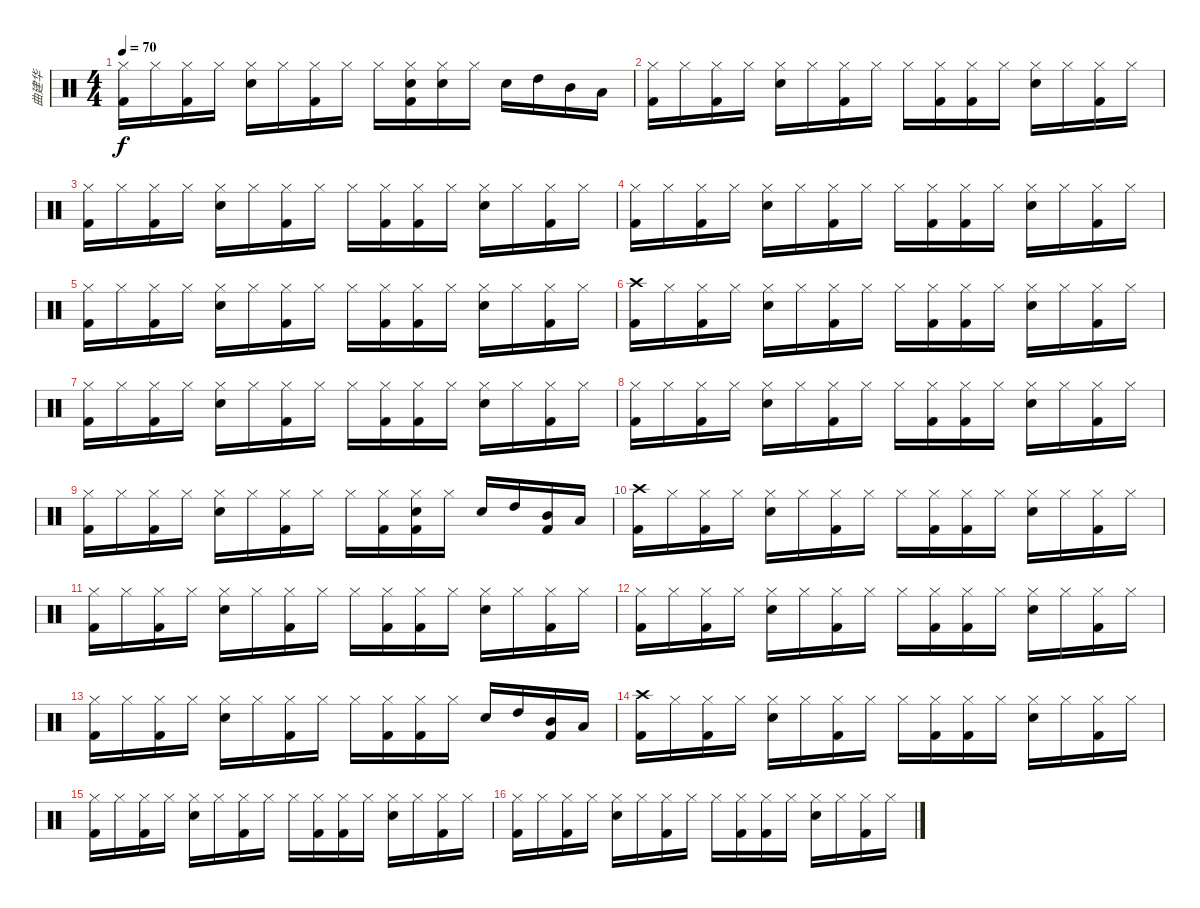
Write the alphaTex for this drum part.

\track ("曲建华" "曲建华") {instrument percussion}
\staff {score}
\articulation defaults
\ts (4 4)
\tempo 70
\clef neutral
\ks c
("Hi-Hat (closed)" "Kick (hit) 2").16{dy f} "Hi-Hat (closed)".16 ("Hi-Hat (closed)" "Kick (hit) 2").16 "Hi-Hat (closed)".16 ("Hi-Hat (closed)" "Electric Snare (hit)").16 "Hi-Hat (closed)".16 ("Hi-Hat (closed)" "Kick (hit) 2").16 "Hi-Hat (closed)".16 "Hi-Hat (closed)".16 ("Hi-Hat (closed)" "Electric Snare (hit)" "Kick (hit) 2").16 ("Hi-Hat (closed)" "Electric Snare (hit)").16 "Hi-Hat (closed)".16 "Electric Snare (hit)".16 "High Tom (hit)".16 "Mid Tom (hit)".16 "Low Tom (hit)".16 |
("Hi-Hat (closed)" "Kick (hit) 2").16 "Hi-Hat (closed)".16 ("Hi-Hat (closed)" "Kick (hit) 2").16 "Hi-Hat (closed)".16 ("Hi-Hat (closed)" "Electric Snare (hit)").16 "Hi-Hat (closed)".16 ("Hi-Hat (closed)" "Kick (hit) 2").16 "Hi-Hat (closed)".16 "Hi-Hat (closed)".16 ("Hi-Hat (closed)" "Kick (hit) 2").16 ("Hi-Hat (closed)" "Kick (hit) 2").16 "Hi-Hat (closed)".16 ("Hi-Hat (closed)" "Electric Snare (hit)").16 "Hi-Hat (closed)".16 ("Hi-Hat (closed)" "Kick (hit) 2").16 "Hi-Hat (closed)".16 |
("Hi-Hat (closed)" "Kick (hit) 2").16 "Hi-Hat (closed)".16 ("Hi-Hat (closed)" "Kick (hit) 2").16 "Hi-Hat (closed)".16 ("Hi-Hat (closed)" "Electric Snare (hit)").16 "Hi-Hat (closed)".16 ("Hi-Hat (closed)" "Kick (hit) 2").16 "Hi-Hat (closed)".16 "Hi-Hat (closed)".16 ("Hi-Hat (closed)" "Kick (hit) 2").16 ("Hi-Hat (closed)" "Kick (hit) 2").16 "Hi-Hat (closed)".16 ("Hi-Hat (closed)" "Electric Snare (hit)").16 "Hi-Hat (closed)".16 ("Hi-Hat (closed)" "Kick (hit) 2").16 "Hi-Hat (closed)".16 |
("Hi-Hat (closed)" "Kick (hit) 2").16 "Hi-Hat (closed)".16 ("Hi-Hat (closed)" "Kick (hit) 2").16 "Hi-Hat (closed)".16 ("Hi-Hat (closed)" "Electric Snare (hit)").16 "Hi-Hat (closed)".16 ("Hi-Hat (closed)" "Kick (hit) 2").16 "Hi-Hat (closed)".16 "Hi-Hat (closed)".16 ("Hi-Hat (closed)" "Kick (hit) 2").16 ("Hi-Hat (closed)" "Kick (hit) 2").16 "Hi-Hat (closed)".16 ("Hi-Hat (closed)" "Electric Snare (hit)").16 "Hi-Hat (closed)".16 ("Hi-Hat (closed)" "Kick (hit) 2").16 "Hi-Hat (closed)".16 |
("Hi-Hat (closed)" "Kick (hit) 2").16 "Hi-Hat (closed)".16 ("Hi-Hat (closed)" "Kick (hit) 2").16 "Hi-Hat (closed)".16 ("Hi-Hat (closed)" "Electric Snare (hit)").16 "Hi-Hat (closed)".16 ("Hi-Hat (closed)" "Kick (hit) 2").16 "Hi-Hat (closed)".16 "Hi-Hat (closed)".16 ("Hi-Hat (closed)" "Kick (hit) 2").16 ("Hi-Hat (closed)" "Kick (hit) 2").16 "Hi-Hat (closed)".16 ("Hi-Hat (closed)" "Electric Snare (hit)").16 "Hi-Hat (closed)".16 ("Hi-Hat (closed)" "Kick (hit) 2").16 "Hi-Hat (closed)".16 |
("Crash high (hit)" "Kick (hit) 2").16 "Hi-Hat (closed)".16 ("Hi-Hat (closed)" "Kick (hit) 2").16 "Hi-Hat (closed)".16 ("Hi-Hat (closed)" "Electric Snare (hit)").16 "Hi-Hat (closed)".16 ("Hi-Hat (closed)" "Kick (hit) 2").16 "Hi-Hat (closed)".16 "Hi-Hat (closed)".16 ("Hi-Hat (closed)" "Kick (hit) 2").16 ("Hi-Hat (closed)" "Kick (hit) 2").16 "Hi-Hat (closed)".16 ("Hi-Hat (closed)" "Electric Snare (hit)").16 "Hi-Hat (closed)".16 ("Hi-Hat (closed)" "Kick (hit) 2").16 "Hi-Hat (closed)".16 |
("Hi-Hat (closed)" "Kick (hit) 2").16 "Hi-Hat (closed)".16 ("Hi-Hat (closed)" "Kick (hit) 2").16 "Hi-Hat (closed)".16 ("Hi-Hat (closed)" "Electric Snare (hit)").16 "Hi-Hat (closed)".16 ("Hi-Hat (closed)" "Kick (hit) 2").16 "Hi-Hat (closed)".16 "Hi-Hat (closed)".16 ("Hi-Hat (closed)" "Kick (hit) 2").16 ("Hi-Hat (closed)" "Kick (hit) 2").16 "Hi-Hat (closed)".16 ("Hi-Hat (closed)" "Electric Snare (hit)").16 "Hi-Hat (closed)".16 ("Hi-Hat (closed)" "Kick (hit) 2").16 "Hi-Hat (closed)".16 |
("Hi-Hat (closed)" "Kick (hit) 2").16 "Hi-Hat (closed)".16 ("Hi-Hat (closed)" "Kick (hit) 2").16 "Hi-Hat (closed)".16 ("Hi-Hat (closed)" "Electric Snare (hit)").16 "Hi-Hat (closed)".16 ("Hi-Hat (closed)" "Kick (hit) 2").16 "Hi-Hat (closed)".16 "Hi-Hat (closed)".16 ("Hi-Hat (closed)" "Kick (hit) 2").16 ("Hi-Hat (closed)" "Kick (hit) 2").16 "Hi-Hat (closed)".16 ("Hi-Hat (closed)" "Electric Snare (hit)").16 "Hi-Hat (closed)".16 ("Hi-Hat (closed)" "Kick (hit) 2").16 "Hi-Hat (closed)".16 |
("Hi-Hat (closed)" "Kick (hit) 2").16 "Hi-Hat (closed)".16 ("Hi-Hat (closed)" "Kick (hit) 2").16 "Hi-Hat (closed)".16 ("Hi-Hat (closed)" "Electric Snare (hit)").16 "Hi-Hat (closed)".16 ("Hi-Hat (closed)" "Kick (hit) 2").16 "Hi-Hat (closed)".16 "Hi-Hat (closed)".16 ("Hi-Hat (closed)" "Kick (hit) 2").16 ("Hi-Hat (closed)" "Electric Snare (hit)" "Kick (hit) 2").16 "Hi-Hat (closed)".16 "Electric Snare (hit)".16 "High Tom (hit)".16 ("Mid Tom (hit)" "Kick (hit) 2").16 "Low Tom (hit)".16 |
("Crash high (hit)" "Kick (hit) 2").16 "Hi-Hat (closed)".16 ("Hi-Hat (closed)" "Kick (hit) 2").16 "Hi-Hat (closed)".16 ("Hi-Hat (closed)" "Electric Snare (hit)").16 "Hi-Hat (closed)".16 ("Hi-Hat (closed)" "Kick (hit) 2").16 "Hi-Hat (closed)".16 "Hi-Hat (closed)".16 ("Hi-Hat (closed)" "Kick (hit) 2").16 ("Hi-Hat (closed)" "Kick (hit) 2").16 "Hi-Hat (closed)".16 ("Hi-Hat (closed)" "Electric Snare (hit)").16 "Hi-Hat (closed)".16 ("Hi-Hat (closed)" "Kick (hit) 2").16 "Hi-Hat (closed)".16 |
("Hi-Hat (closed)" "Kick (hit) 2").16 "Hi-Hat (closed)".16 ("Hi-Hat (closed)" "Kick (hit) 2").16 "Hi-Hat (closed)".16 ("Hi-Hat (closed)" "Electric Snare (hit)").16 "Hi-Hat (closed)".16 ("Hi-Hat (closed)" "Kick (hit) 2").16 "Hi-Hat (closed)".16 "Hi-Hat (closed)".16 ("Hi-Hat (closed)" "Kick (hit) 2").16 ("Hi-Hat (closed)" "Kick (hit) 2").16 "Hi-Hat (closed)".16 ("Hi-Hat (closed)" "Electric Snare (hit)").16 "Hi-Hat (closed)".16 ("Hi-Hat (closed)" "Kick (hit) 2").16 "Hi-Hat (closed)".16 |
("Hi-Hat (closed)" "Kick (hit) 2").16 "Hi-Hat (closed)".16 ("Hi-Hat (closed)" "Kick (hit) 2").16 "Hi-Hat (closed)".16 ("Hi-Hat (closed)" "Electric Snare (hit)").16 "Hi-Hat (closed)".16 ("Hi-Hat (closed)" "Kick (hit) 2").16 "Hi-Hat (closed)".16 "Hi-Hat (closed)".16 ("Hi-Hat (closed)" "Kick (hit) 2").16 ("Hi-Hat (closed)" "Kick (hit) 2").16 "Hi-Hat (closed)".16 ("Hi-Hat (closed)" "Electric Snare (hit)").16 "Hi-Hat (closed)".16 ("Hi-Hat (closed)" "Kick (hit) 2").16 "Hi-Hat (closed)".16 |
("Hi-Hat (closed)" "Kick (hit) 2").16 "Hi-Hat (closed)".16 ("Hi-Hat (closed)" "Kick (hit) 2").16 "Hi-Hat (closed)".16 ("Hi-Hat (closed)" "Electric Snare (hit)").16 "Hi-Hat (closed)".16 ("Hi-Hat (closed)" "Kick (hit) 2").16 "Hi-Hat (closed)".16 "Hi-Hat (closed)".16 ("Hi-Hat (closed)" "Kick (hit) 2").16 ("Hi-Hat (closed)" "Kick (hit) 2").16 "Hi-Hat (closed)".16 "Electric Snare (hit)".16 "High Tom (hit)".16 ("Mid Tom (hit)" "Kick (hit) 2").16 "Low Tom (hit)".16 |
("Crash high (hit)" "Kick (hit) 2").16 "Hi-Hat (closed)".16 ("Hi-Hat (closed)" "Kick (hit) 2").16 "Hi-Hat (closed)".16 ("Hi-Hat (closed)" "Electric Snare (hit)").16 "Hi-Hat (closed)".16 ("Hi-Hat (closed)" "Kick (hit) 2").16 "Hi-Hat (closed)".16 "Hi-Hat (closed)".16 ("Hi-Hat (closed)" "Kick (hit) 2").16 ("Hi-Hat (closed)" "Kick (hit) 2").16 "Hi-Hat (closed)".16 ("Hi-Hat (closed)" "Electric Snare (hit)").16 "Hi-Hat (closed)".16 ("Hi-Hat (closed)" "Kick (hit) 2").16 "Hi-Hat (closed)".16 |
("Hi-Hat (closed)" "Kick (hit) 2").16 "Hi-Hat (closed)".16 ("Hi-Hat (closed)" "Kick (hit) 2").16 "Hi-Hat (closed)".16 ("Hi-Hat (closed)" "Electric Snare (hit)").16 "Hi-Hat (closed)".16 ("Hi-Hat (closed)" "Kick (hit) 2").16 "Hi-Hat (closed)".16 "Hi-Hat (closed)".16 ("Hi-Hat (closed)" "Kick (hit) 2").16 ("Hi-Hat (closed)" "Kick (hit) 2").16 "Hi-Hat (closed)".16 ("Hi-Hat (closed)" "Electric Snare (hit)").16 "Hi-Hat (closed)".16 ("Hi-Hat (closed)" "Kick (hit) 2").16 "Hi-Hat (closed)".16 |
("Hi-Hat (closed)" "Kick (hit) 2").16 "Hi-Hat (closed)".16 ("Hi-Hat (closed)" "Kick (hit) 2").16 "Hi-Hat (closed)".16 ("Hi-Hat (closed)" "Electric Snare (hit)").16 "Hi-Hat (closed)".16 ("Hi-Hat (closed)" "Kick (hit) 2").16 "Hi-Hat (closed)".16 "Hi-Hat (closed)".16 ("Hi-Hat (closed)" "Kick (hit) 2").16 ("Hi-Hat (closed)" "Kick (hit) 2").16 "Hi-Hat (closed)".16 ("Hi-Hat (closed)" "Electric Snare (hit)").16 "Hi-Hat (closed)".16 ("Hi-Hat (closed)" "Kick (hit) 2").16 "Hi-Hat (closed)".16
